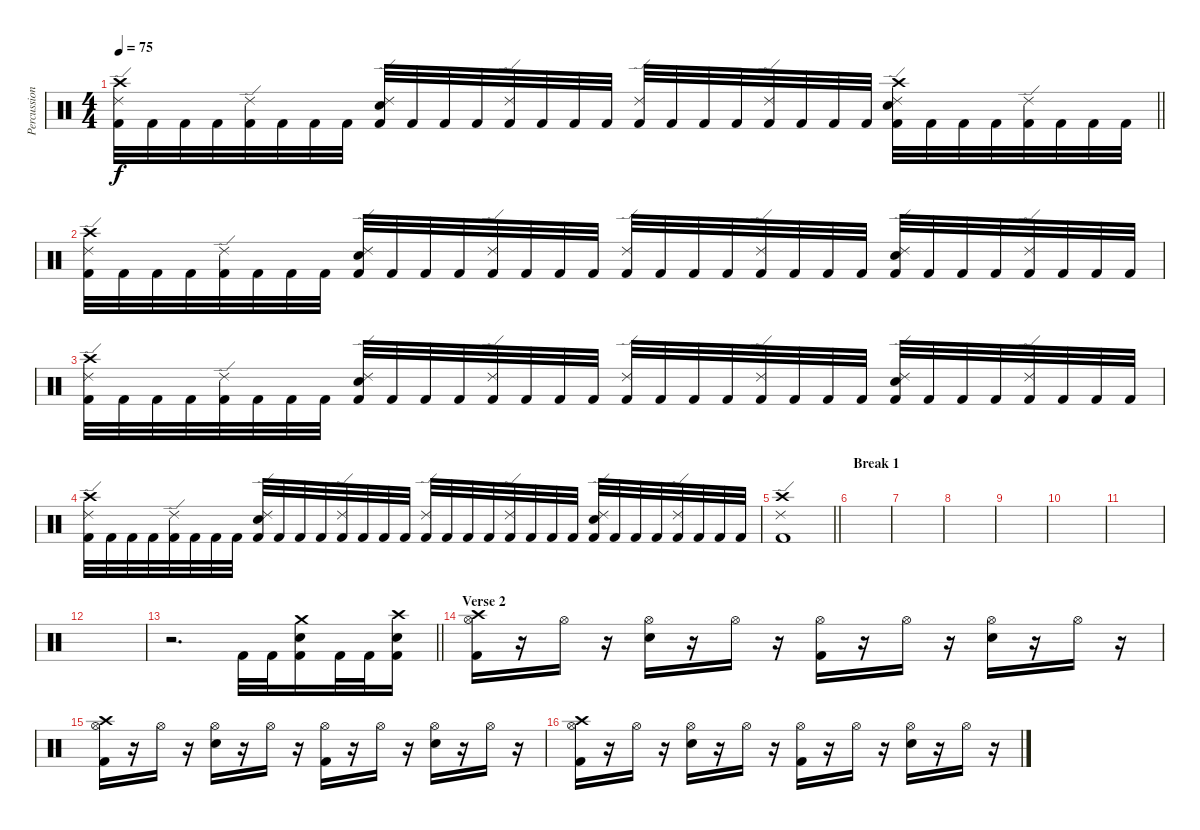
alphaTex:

\track ("Percussion" "Percussion") {instrument percussion}
\staff {score}
\articulation defaults
\ts (4 4)
\tempo 75
\clef neutral
\barLineRight lightlight
\ks c
("Crash high (hit)" "Ride (edge) 2" "Kick (hit) 2").32{dy f} "Kick (hit) 2".32 "Kick (hit) 2".32 "Kick (hit) 2".32 ("Ride (edge) 2" "Kick (hit) 2").32 "Kick (hit) 2".32 "Kick (hit) 2".32 "Kick (hit) 2".32 ("Ride (edge) 2" "Electric Snare (hit)" "Kick (hit) 2").32 "Kick (hit) 2".32 "Kick (hit) 2".32 "Kick (hit) 2".32 ("Ride (edge) 2" "Kick (hit) 2").32 "Kick (hit) 2".32 "Kick (hit) 2".32 "Kick (hit) 2".32 ("Ride (edge) 2" "Kick (hit) 2").32 "Kick (hit) 2".32 "Kick (hit) 2".32 "Kick (hit) 2".32 ("Ride (edge) 2" "Kick (hit) 2").32 "Kick (hit) 2".32 "Kick (hit) 2".32 "Kick (hit) 2".32 ("Crash high (hit)" "Ride (edge) 2" "Electric Snare (hit)" "Kick (hit) 2").32 "Kick (hit) 2".32 "Kick (hit) 2".32 "Kick (hit) 2".32 ("Ride (edge) 2" "Kick (hit) 2").32 "Kick (hit) 2".32 "Kick (hit) 2".32 "Kick (hit) 2".32 |
("Crash high (hit)" "Ride (edge) 2" "Kick (hit) 2").32 "Kick (hit) 2".32 "Kick (hit) 2".32 "Kick (hit) 2".32 ("Ride (edge) 2" "Kick (hit) 2").32 "Kick (hit) 2".32 "Kick (hit) 2".32 "Kick (hit) 2".32 ("Ride (edge) 2" "Electric Snare (hit)" "Kick (hit) 2").32 "Kick (hit) 2".32 "Kick (hit) 2".32 "Kick (hit) 2".32 ("Ride (edge) 2" "Kick (hit) 2").32 "Kick (hit) 2".32 "Kick (hit) 2".32 "Kick (hit) 2".32 ("Ride (edge) 2" "Kick (hit) 2").32 "Kick (hit) 2".32 "Kick (hit) 2".32 "Kick (hit) 2".32 ("Ride (edge) 2" "Kick (hit) 2").32 "Kick (hit) 2".32 "Kick (hit) 2".32 "Kick (hit) 2".32 ("Ride (edge) 2" "Electric Snare (hit)" "Kick (hit) 2").32 "Kick (hit) 2".32 "Kick (hit) 2".32 "Kick (hit) 2".32 ("Ride (edge) 2" "Kick (hit) 2").32 "Kick (hit) 2".32 "Kick (hit) 2".32 "Kick (hit) 2".32 |
("Crash high (hit)" "Ride (edge) 2" "Kick (hit) 2").32 "Kick (hit) 2".32 "Kick (hit) 2".32 "Kick (hit) 2".32 ("Ride (edge) 2" "Kick (hit) 2").32 "Kick (hit) 2".32 "Kick (hit) 2".32 "Kick (hit) 2".32 ("Ride (edge) 2" "Electric Snare (hit)" "Kick (hit) 2").32 "Kick (hit) 2".32 "Kick (hit) 2".32 "Kick (hit) 2".32 ("Ride (edge) 2" "Kick (hit) 2").32 "Kick (hit) 2".32 "Kick (hit) 2".32 "Kick (hit) 2".32 ("Ride (edge) 2" "Kick (hit) 2").32 "Kick (hit) 2".32 "Kick (hit) 2".32 "Kick (hit) 2".32 ("Ride (edge) 2" "Kick (hit) 2").32 "Kick (hit) 2".32 "Kick (hit) 2".32 "Kick (hit) 2".32 ("Ride (edge) 2" "Electric Snare (hit)" "Kick (hit) 2").32 "Kick (hit) 2".32 "Kick (hit) 2".32 "Kick (hit) 2".32 ("Ride (edge) 2" "Kick (hit) 2").32 "Kick (hit) 2".32 "Kick (hit) 2".32 "Kick (hit) 2".32 |
("Crash high (hit)" "Ride (edge) 2" "Kick (hit) 2").32 "Kick (hit) 2".32 "Kick (hit) 2".32 "Kick (hit) 2".32 ("Ride (edge) 2" "Kick (hit) 2").32 "Kick (hit) 2".32 "Kick (hit) 2".32 "Kick (hit) 2".32 ("Ride (edge) 2" "Electric Snare (hit)" "Kick (hit) 2").32 "Kick (hit) 2".32 "Kick (hit) 2".32 "Kick (hit) 2".32 ("Ride (edge) 2" "Kick (hit) 2").32 "Kick (hit) 2".32 "Kick (hit) 2".32 "Kick (hit) 2".32 ("Ride (edge) 2" "Kick (hit) 2").32 "Kick (hit) 2".32 "Kick (hit) 2".32 "Kick (hit) 2".32 ("Ride (edge) 2" "Kick (hit) 2").32 "Kick (hit) 2".32 "Kick (hit) 2".32 "Kick (hit) 2".32 ("Ride (edge) 2" "Electric Snare (hit)" "Kick (hit) 2").32 "Kick (hit) 2".32 "Kick (hit) 2".32 "Kick (hit) 2".32 ("Ride (edge) 2" "Kick (hit) 2").32 "Kick (hit) 2".32 "Kick (hit) 2".32 "Kick (hit) 2".32 |
\barLineRight lightlight
("Crash high (hit)" "Ride (edge) 2" "Kick (hit) 2").1 |
\section ("" "Break 1")
|
|
|
|
|
|
|
\barLineRight lightlight
r.2{d} "Kick (hit) 2".32 "Kick (hit) 2".32 ("Crash medium (hit)" "Electric Snare (hit)" "Kick (hit) 2").16 "Kick (hit) 2".32 "Kick (hit) 2".32 ("Crash high (hit)" "Electric Snare (hit)" "Kick (hit) 2").16 |
\section ("" "Verse 2")
("Crash high (hit)" "Hi-Hat (open)" "Kick (hit) 2").16 r.16 "Hi-Hat (open)".16 r.16 ("Hi-Hat (open)" "Electric Snare (hit)").16 r.16 "Hi-Hat (open)".16 r.16 ("Hi-Hat (open)" "Kick (hit) 2").16 r.16 "Hi-Hat (open)".16 r.16 ("Hi-Hat (open)" "Electric Snare (hit)").16 r.16 "Hi-Hat (open)".16 r.16 |
("Crash high (hit)" "Hi-Hat (open)" "Kick (hit) 2").16 r.16 "Hi-Hat (open)".16 r.16 ("Hi-Hat (open)" "Electric Snare (hit)").16 r.16 "Hi-Hat (open)".16 r.16 ("Hi-Hat (open)" "Kick (hit) 2").16 r.16 "Hi-Hat (open)".16 r.16 ("Hi-Hat (open)" "Electric Snare (hit)").16 r.16 "Hi-Hat (open)".16 r.16 |
("Crash high (hit)" "Hi-Hat (open)" "Kick (hit) 2").16 r.16 "Hi-Hat (open)".16 r.16 ("Hi-Hat (open)" "Electric Snare (hit)").16 r.16 "Hi-Hat (open)".16 r.16 ("Hi-Hat (open)" "Kick (hit) 2").16 r.16 "Hi-Hat (open)".16 r.16 ("Hi-Hat (open)" "Electric Snare (hit)").16 r.16 "Hi-Hat (open)".16 r.16
